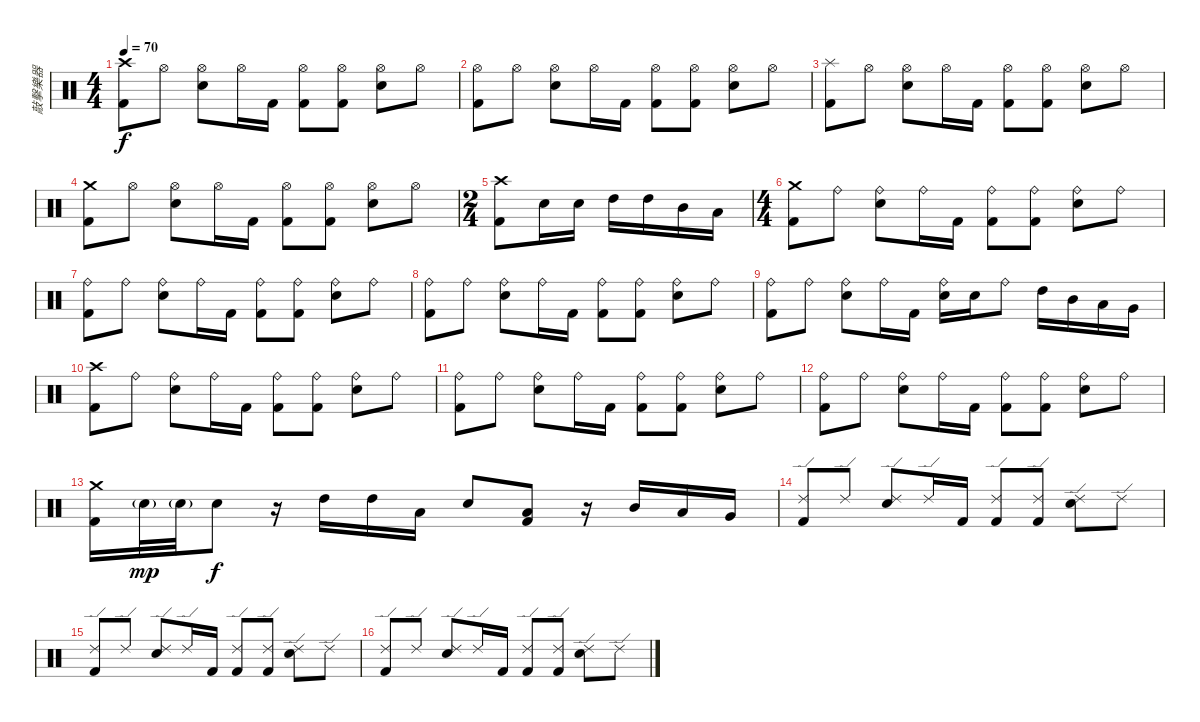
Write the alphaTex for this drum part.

\track ("敲擊樂器" "敲擊樂器") {instrument percussion}
\staff {score}
\articulation defaults
\ts (4 4)
\tempo 70
\clef neutral
\ks c
("Crash high (hit)" "Kick (hit) 2").8{dy f} "Hi-Hat (open)".8 ("Hi-Hat (open)" "Snare (hit) 2").8 "Hi-Hat (open)".16 "Kick (hit) 2".16 ("Hi-Hat (open)" "Kick (hit) 2").8 ("Hi-Hat (open)" "Kick (hit) 2").8 ("Hi-Hat (open)" "Snare (hit) 2").8 "Hi-Hat (open)".8 |
("Hi-Hat (open)" "Kick (hit) 2").8 "Hi-Hat (open)".8 ("Hi-Hat (open)" "Snare (hit) 2").8 "Hi-Hat (open)".16 "Kick (hit) 2".16 ("Hi-Hat (open)" "Kick (hit) 2").8 ("Hi-Hat (open)" "Kick (hit) 2").8 ("Hi-Hat (open)" "Snare (hit) 2").8 "Hi-Hat (open)".8 |
("Splash (hit)" "Kick (hit) 2").8 "Hi-Hat (open)".8 ("Hi-Hat (open)" "Snare (hit) 2").8 "Hi-Hat (open)".16 "Kick (hit) 2".16 ("Hi-Hat (open)" "Kick (hit) 2").8 ("Hi-Hat (open)" "Kick (hit) 2").8 ("Hi-Hat (open)" "Snare (hit) 2").8 "Hi-Hat (open)".8 |
("Crash medium (hit)" "Kick (hit) 2").8 "Hi-Hat (open)".8 ("Hi-Hat (open)" "Snare (hit) 2").8 "Hi-Hat (open)".16 "Kick (hit) 2".16 ("Hi-Hat (open)" "Kick (hit) 2").8 ("Hi-Hat (open)" "Kick (hit) 2").8 ("Hi-Hat (open)" "Snare (hit) 2").8 "Hi-Hat (open)".8 |
\ts (2 4)
("Crash high (hit)" "Kick (hit) 2").8 "Snare (hit) 2".16 "Snare (hit) 2".16 "High Tom (hit)".16 "High Tom (hit)".16 "Mid Tom (hit)".16 "Low Tom (hit)".16 |
\ts (4 4)
("Crash medium (hit)" "Kick (hit) 2").8 "Ride (bell)".8 ("Ride (bell)" "Snare (hit) 2").8 "Ride (bell)".16 "Kick (hit) 2".16 ("Ride (bell)" "Kick (hit) 2").8 ("Ride (bell)" "Kick (hit) 2").8 ("Ride (bell)" "Snare (hit) 2").8 "Ride (bell)".8 |
("Ride (bell)" "Kick (hit) 2").8 "Ride (bell)".8 ("Ride (bell)" "Snare (hit) 2").8 "Ride (bell)".16 "Kick (hit) 2".16 ("Ride (bell)" "Kick (hit) 2").8 ("Ride (bell)" "Kick (hit) 2").8 ("Ride (bell)" "Snare (hit) 2").8 "Ride (bell)".8 |
("Ride (bell)" "Kick (hit) 2").8 "Ride (bell)".8 ("Ride (bell)" "Snare (hit) 2").8 "Ride (bell)".16 "Kick (hit) 2".16 ("Ride (bell)" "Kick (hit) 2").8 ("Ride (bell)" "Kick (hit) 2").8 ("Ride (bell)" "Snare (hit) 2").8 "Ride (bell)".8 |
("Ride (bell)" "Kick (hit) 2").8 "Ride (bell)".8 ("Ride (bell)" "Snare (hit) 2").8 "Ride (bell)".16 "Kick (hit) 2".16 ("Ride (bell)" "Snare (hit) 2").16 "Snare (hit) 2".16 "Ride (bell)".8 "High Tom (hit)".16 "Mid Tom (hit)".16 "Low Tom (hit)".16 "Very Low Tom (hit)".16 |
("Crash high (hit)" "Kick (hit) 2").8 "Ride (bell)".8 ("Ride (bell)" "Snare (hit) 2").8 "Ride (bell)".16 "Kick (hit) 2".16 ("Ride (bell)" "Kick (hit) 2").8 ("Ride (bell)" "Kick (hit) 2").8 ("Ride (bell)" "Snare (hit) 2").8 "Ride (bell)".8 |
("Ride (bell)" "Kick (hit) 2").8 "Ride (bell)".8 ("Ride (bell)" "Snare (hit) 2").8 "Ride (bell)".16 "Kick (hit) 2".16 ("Ride (bell)" "Kick (hit) 2").8 ("Ride (bell)" "Kick (hit) 2").8 ("Ride (bell)" "Snare (hit) 2").8 "Ride (bell)".8 |
("Ride (bell)" "Kick (hit) 2").8 "Ride (bell)".8 ("Ride (bell)" "Snare (hit) 2").8 "Ride (bell)".16 "Kick (hit) 2".16 ("Ride (bell)" "Kick (hit) 2").8 ("Ride (bell)" "Kick (hit) 2").8 ("Ride (bell)" "Snare (hit) 2").8 "Ride (bell)".8 |
("Crash medium (hit)" "Kick (hit) 2").16 "Snare (hit) 2"{g}.32{dy mp} "Snare (hit) 2"{g}.32 "Snare (hit) 2".8{dy f} r.16 "High Tom (hit)".16 "High Tom (hit)".16 "Low Floor Tom (hit)".16 "Snare (hit) 2".8 ("Low Tom (hit)" "Kick (hit) 2").8 r.16 "Mid Tom (hit)".16 "Low Tom (hit)".16 "Very Low Tom (hit)".16 |
("Ride (edge) 2" "Kick (hit) 2").8 "Ride (edge) 2".8 ("Ride (edge) 2" "Snare (hit) 2").8 "Ride (edge) 2".16 "Kick (hit) 2".16 ("Ride (edge) 2" "Kick (hit) 2").8 ("Ride (edge) 2" "Kick (hit) 2").8 ("Ride (edge) 2" "Snare (hit) 2").8 "Ride (edge) 2".8 |
("Ride (edge) 2" "Kick (hit) 2").8 "Ride (edge) 2".8 ("Ride (edge) 2" "Snare (hit) 2").8 "Ride (edge) 2".16 "Kick (hit) 2".16 ("Ride (edge) 2" "Kick (hit) 2").8 ("Ride (edge) 2" "Kick (hit) 2").8 ("Ride (edge) 2" "Snare (hit) 2").8 "Ride (edge) 2".8 |
("Ride (edge) 2" "Kick (hit) 2").8 "Ride (edge) 2".8 ("Ride (edge) 2" "Snare (hit) 2").8 "Ride (edge) 2".16 "Kick (hit) 2".16 ("Ride (edge) 2" "Kick (hit) 2").8 ("Ride (edge) 2" "Kick (hit) 2").8 ("Ride (edge) 2" "Snare (hit) 2").8 "Ride (edge) 2".8
